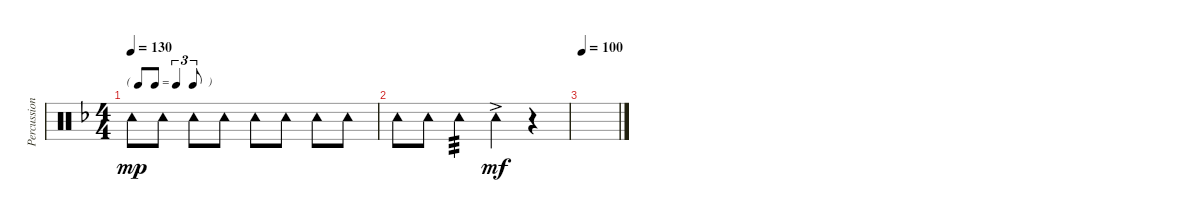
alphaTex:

\track ("Percussion II (Tainaka Ritsu)" "Percussion") {instrument percussion}
\staff {score}
\articulation defaults
\ts (4 4)
\tf triplet8th
\tempo 130
\clef neutral
\ks f "Tambourine (hit)".8{dy mp} "Tambourine (hit)".8 "Tambourine (hit)".8 "Tambourine (hit)".8 "Tambourine (hit)".8 "Tambourine (hit)".8 "Tambourine (hit)".8 "Tambourine (hit)".8
|
"Tambourine (hit)".8 "Tambourine (hit)".8 "Tambourine (hit)".4{tp 3} "Tambourine (hit)"{ac}.4{dy mf} r.4 |
\tempo 100
